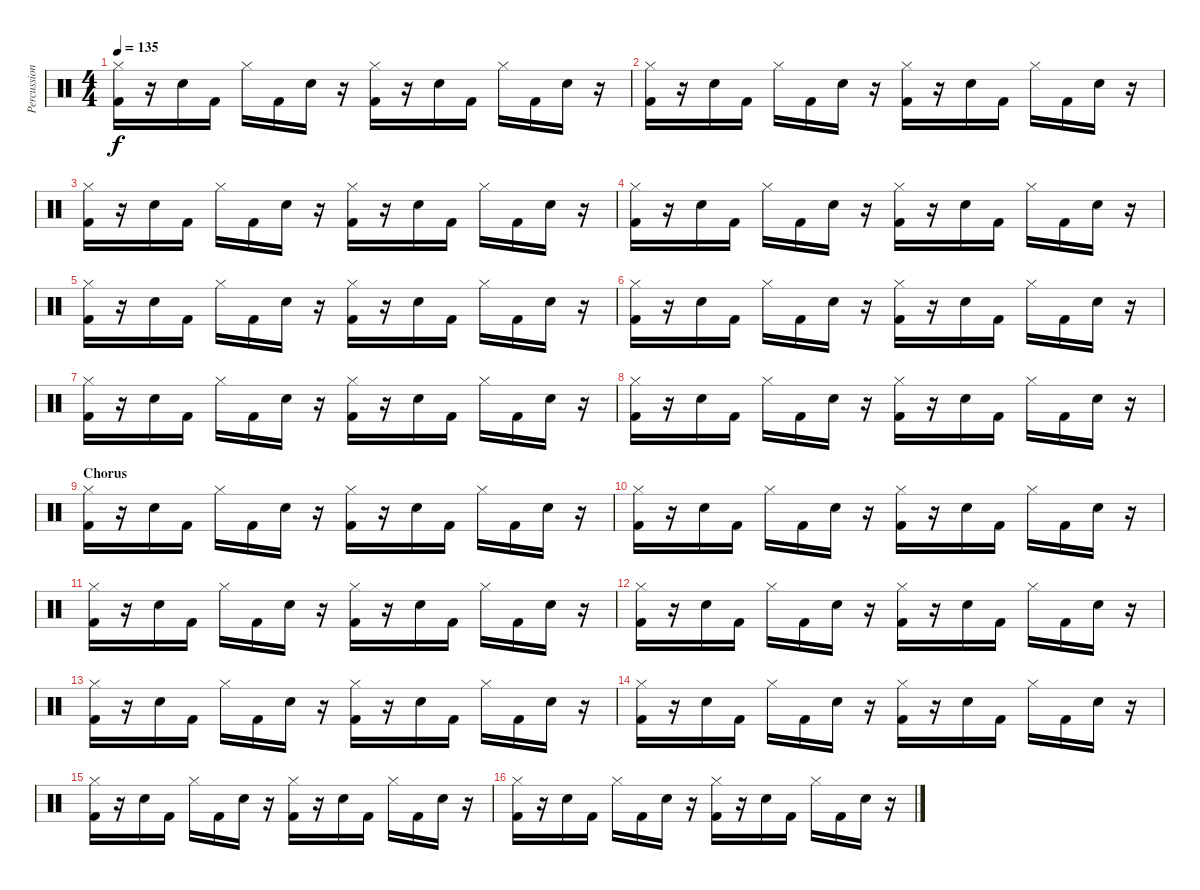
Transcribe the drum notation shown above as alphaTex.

\track ("Percussion" "Percussion") {instrument percussion}
\staff {score}
\articulation defaults
\ts (4 4)
\tempo 135
\clef neutral
\ks c
("Hi-Hat (closed)" "Kick (hit) 2").16{dy f} r.16 "Snare (hit) 2".16 "Kick (hit) 2".16 "Hi-Hat (closed)".16 "Kick (hit) 2".16 "Snare (hit) 2".16 r.16 ("Hi-Hat (closed)" "Kick (hit) 2").16 r.16 "Snare (hit) 2".16 "Kick (hit) 2".16 "Hi-Hat (closed)".16 "Kick (hit) 2".16 "Snare (hit) 2".16 r.16 |
("Hi-Hat (closed)" "Kick (hit) 2").16 r.16 "Snare (hit) 2".16 "Kick (hit) 2".16 "Hi-Hat (closed)".16 "Kick (hit) 2".16 "Snare (hit) 2".16 r.16 ("Hi-Hat (closed)" "Kick (hit) 2").16 r.16 "Snare (hit) 2".16 "Kick (hit) 2".16 "Hi-Hat (closed)".16 "Kick (hit) 2".16 "Snare (hit) 2".16 r.16 |
("Hi-Hat (closed)" "Kick (hit) 2").16 r.16 "Snare (hit) 2".16 "Kick (hit) 2".16 "Hi-Hat (closed)".16 "Kick (hit) 2".16 "Snare (hit) 2".16 r.16 ("Hi-Hat (closed)" "Kick (hit) 2").16 r.16 "Snare (hit) 2".16 "Kick (hit) 2".16 "Hi-Hat (closed)".16 "Kick (hit) 2".16 "Snare (hit) 2".16 r.16 |
("Hi-Hat (closed)" "Kick (hit) 2").16 r.16 "Snare (hit) 2".16 "Kick (hit) 2".16 "Hi-Hat (closed)".16 "Kick (hit) 2".16 "Snare (hit) 2".16 r.16 ("Hi-Hat (closed)" "Kick (hit) 2").16 r.16 "Snare (hit) 2".16 "Kick (hit) 2".16 "Hi-Hat (closed)".16 "Kick (hit) 2".16 "Snare (hit) 2".16 r.16 |
("Hi-Hat (closed)" "Kick (hit) 2").16 r.16 "Snare (hit) 2".16 "Kick (hit) 2".16 "Hi-Hat (closed)".16 "Kick (hit) 2".16 "Snare (hit) 2".16 r.16 ("Hi-Hat (closed)" "Kick (hit) 2").16 r.16 "Snare (hit) 2".16 "Kick (hit) 2".16 "Hi-Hat (closed)".16 "Kick (hit) 2".16 "Snare (hit) 2".16 r.16 |
("Hi-Hat (closed)" "Kick (hit) 2").16 r.16 "Snare (hit) 2".16 "Kick (hit) 2".16 "Hi-Hat (closed)".16 "Kick (hit) 2".16 "Snare (hit) 2".16 r.16 ("Hi-Hat (closed)" "Kick (hit) 2").16 r.16 "Snare (hit) 2".16 "Kick (hit) 2".16 "Hi-Hat (closed)".16 "Kick (hit) 2".16 "Snare (hit) 2".16 r.16 |
("Hi-Hat (closed)" "Kick (hit) 2").16 r.16 "Snare (hit) 2".16 "Kick (hit) 2".16 "Hi-Hat (closed)".16 "Kick (hit) 2".16 "Snare (hit) 2".16 r.16 ("Hi-Hat (closed)" "Kick (hit) 2").16 r.16 "Snare (hit) 2".16 "Kick (hit) 2".16 "Hi-Hat (closed)".16 "Kick (hit) 2".16 "Snare (hit) 2".16 r.16 |
("Hi-Hat (closed)" "Kick (hit) 2").16 r.16 "Snare (hit) 2".16 "Kick (hit) 2".16 "Hi-Hat (closed)".16 "Kick (hit) 2".16 "Snare (hit) 2".16 r.16 ("Hi-Hat (closed)" "Kick (hit) 2").16 r.16 "Snare (hit) 2".16 "Kick (hit) 2".16 "Hi-Hat (closed)".16 "Kick (hit) 2".16 "Snare (hit) 2".16 r.16 |
\section ("" "Chorus")
("Hi-Hat (closed)" "Kick (hit) 2").16 r.16 "Snare (hit) 2".16 "Kick (hit) 2".16 "Hi-Hat (closed)".16 "Kick (hit) 2".16 "Snare (hit) 2".16 r.16 ("Hi-Hat (closed)" "Kick (hit) 2").16 r.16 "Snare (hit) 2".16 "Kick (hit) 2".16 "Hi-Hat (closed)".16 "Kick (hit) 2".16 "Snare (hit) 2".16 r.16 |
("Hi-Hat (closed)" "Kick (hit) 2").16 r.16 "Snare (hit) 2".16 "Kick (hit) 2".16 "Hi-Hat (closed)".16 "Kick (hit) 2".16 "Snare (hit) 2".16 r.16 ("Hi-Hat (closed)" "Kick (hit) 2").16 r.16 "Snare (hit) 2".16 "Kick (hit) 2".16 "Hi-Hat (closed)".16 "Kick (hit) 2".16 "Snare (hit) 2".16 r.16 |
("Hi-Hat (closed)" "Kick (hit) 2").16 r.16 "Snare (hit) 2".16 "Kick (hit) 2".16 "Hi-Hat (closed)".16 "Kick (hit) 2".16 "Snare (hit) 2".16 r.16 ("Hi-Hat (closed)" "Kick (hit) 2").16 r.16 "Snare (hit) 2".16 "Kick (hit) 2".16 "Hi-Hat (closed)".16 "Kick (hit) 2".16 "Snare (hit) 2".16 r.16 |
("Hi-Hat (closed)" "Kick (hit) 2").16 r.16 "Snare (hit) 2".16 "Kick (hit) 2".16 "Hi-Hat (closed)".16 "Kick (hit) 2".16 "Snare (hit) 2".16 r.16 ("Hi-Hat (closed)" "Kick (hit) 2").16 r.16 "Snare (hit) 2".16 "Kick (hit) 2".16 "Hi-Hat (closed)".16 "Kick (hit) 2".16 "Snare (hit) 2".16 r.16 |
("Hi-Hat (closed)" "Kick (hit) 2").16 r.16 "Snare (hit) 2".16 "Kick (hit) 2".16 "Hi-Hat (closed)".16 "Kick (hit) 2".16 "Snare (hit) 2".16 r.16 ("Hi-Hat (closed)" "Kick (hit) 2").16 r.16 "Snare (hit) 2".16 "Kick (hit) 2".16 "Hi-Hat (closed)".16 "Kick (hit) 2".16 "Snare (hit) 2".16 r.16 |
("Hi-Hat (closed)" "Kick (hit) 2").16 r.16 "Snare (hit) 2".16 "Kick (hit) 2".16 "Hi-Hat (closed)".16 "Kick (hit) 2".16 "Snare (hit) 2".16 r.16 ("Hi-Hat (closed)" "Kick (hit) 2").16 r.16 "Snare (hit) 2".16 "Kick (hit) 2".16 "Hi-Hat (closed)".16 "Kick (hit) 2".16 "Snare (hit) 2".16 r.16 |
("Hi-Hat (closed)" "Kick (hit) 2").16 r.16 "Snare (hit) 2".16 "Kick (hit) 2".16 "Hi-Hat (closed)".16 "Kick (hit) 2".16 "Snare (hit) 2".16 r.16 ("Hi-Hat (closed)" "Kick (hit) 2").16 r.16 "Snare (hit) 2".16 "Kick (hit) 2".16 "Hi-Hat (closed)".16 "Kick (hit) 2".16 "Snare (hit) 2".16 r.16 |
("Hi-Hat (closed)" "Kick (hit) 2").16 r.16 "Snare (hit) 2".16 "Kick (hit) 2".16 "Hi-Hat (closed)".16 "Kick (hit) 2".16 "Snare (hit) 2".16 r.16 ("Hi-Hat (closed)" "Kick (hit) 2").16 r.16 "Snare (hit) 2".16 "Kick (hit) 2".16 "Hi-Hat (closed)".16 "Kick (hit) 2".16 "Snare (hit) 2".16 r.16
